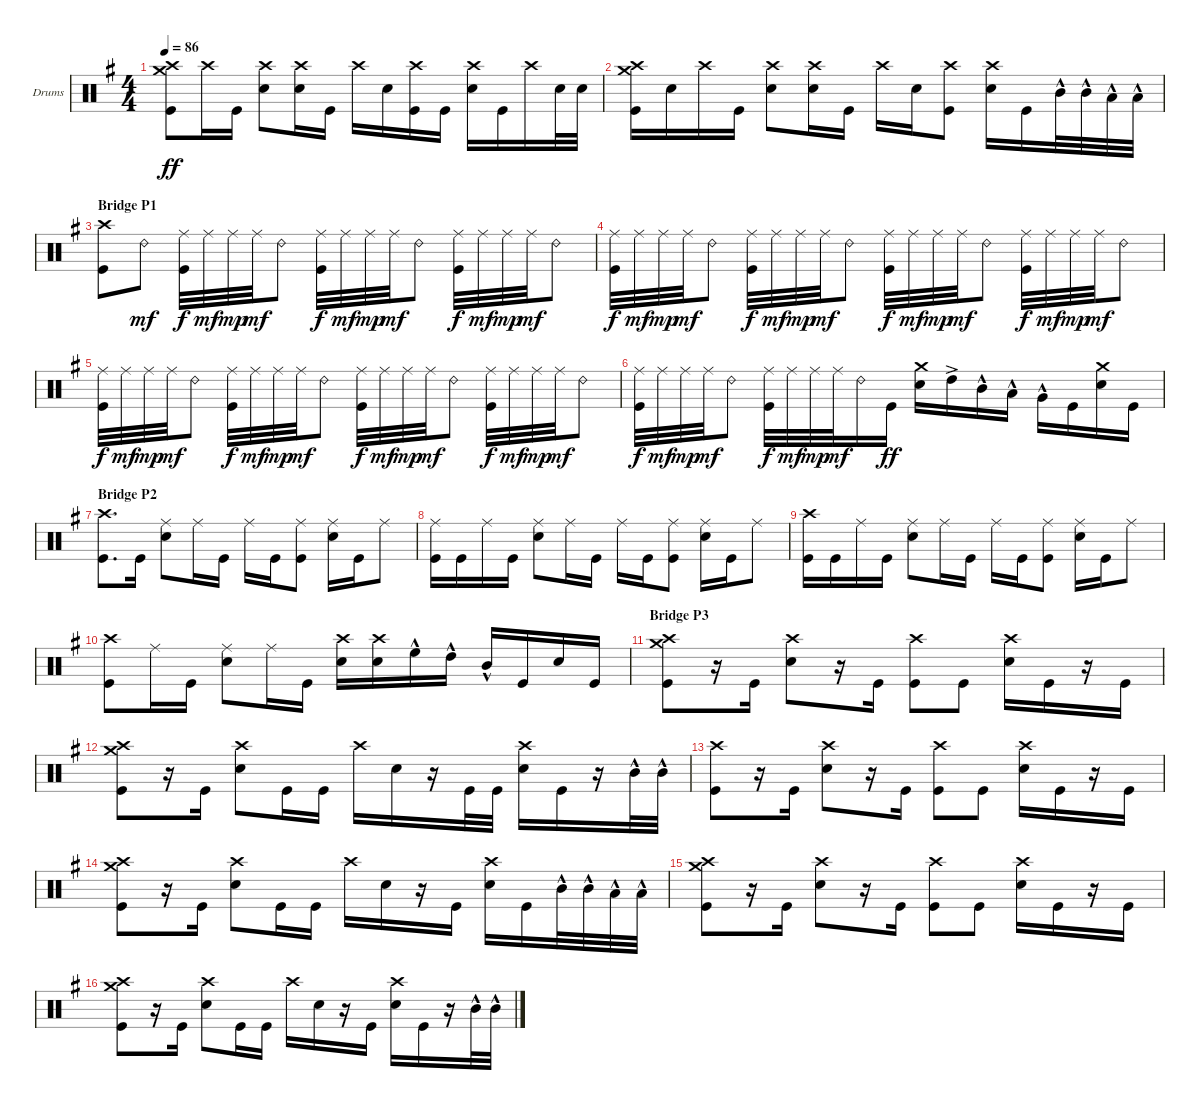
\defaultSystemsLayout 4
\bracketExtendMode groupsimilarinstruments
\firstSystemTrackNameOrientation horizontal
\otherSystemsTrackNameOrientation horizontal
\track ("Drumkit" "Drums") {instrument percussion}
\staff {score}
\articulation defaults
\ts (4 4)
\tempo 86
\clef neutral
\ks eminor
("Crash high (hit)" "Crash medium (hit)" "Kick (hit)").8{dy ff} "Crash high (hit)".16 "Kick (hit)".16 ("Crash high (hit)" "Snare (hit) 2").8 ("Snare (hit) 2" "Crash high (hit)").16 "Kick (hit)".16 "Crash high (hit)".16 "Snare (hit) 2".16 ("Kick (hit)" "Crash high (hit)").16 "Kick (hit)".16 ("Snare (hit) 2" "Crash high (hit)").16 "Kick (hit)".16 "Crash high (hit)".16 "Snare (hit) 2".32 "Snare (hit) 2".32 |
("Crash high (hit)" "Crash medium (hit)" "Kick (hit)").16 "Snare (hit) 2".16 "Crash high (hit)".16 "Kick (hit)".16 ("Crash high (hit)" "Snare (hit) 2").8 ("Snare (hit) 2" "Crash high (hit)").16 "Kick (hit)".16 "Crash high (hit)".16 "Snare (hit) 2".16 ("Kick (hit)" "Crash high (hit)").8 ("Snare (hit) 2" "Crash high (hit)").16 "Kick (hit)".16 "Mid Tom (hit)"{hac}.32 "Mid Tom (hit)"{hac}.32 "Low Tom (hit)"{hac}.32 "Low Tom (hit)"{hac}.32 |
\section ("" "Bridge P1")
("Crash high (hit)" "Kick (hit)").8 "Ride (bell) 2".8{dy mf} ("Ride (middle)" "Kick (hit)").32{dy f} "Ride (middle)".32{dy mf} "Ride (middle)".32{dy mp} "Ride (middle)".32{dy mf} "Ride (bell) 2".8 ("Ride (middle)" "Kick (hit)").32{dy f} "Ride (middle)".32{dy mf} "Ride (middle)".32{dy mp} "Ride (middle)".32{dy mf} "Ride (bell) 2".8 ("Ride (middle)" "Kick (hit)").32{dy f} "Ride (middle)".32{dy mf} "Ride (middle)".32{dy mp} "Ride (middle)".32{dy mf} "Ride (bell) 2".8 |
("Ride (middle)" "Kick (hit)").32{dy f} "Ride (middle)".32{dy mf} "Ride (middle)".32{dy mp} "Ride (middle)".32{dy mf} "Ride (bell) 2".8 ("Ride (middle)" "Kick (hit)").32{dy f} "Ride (middle)".32{dy mf} "Ride (middle)".32{dy mp} "Ride (middle)".32{dy mf} "Ride (bell) 2".8 ("Ride (middle)" "Kick (hit)").32{dy f} "Ride (middle)".32{dy mf} "Ride (middle)".32{dy mp} "Ride (middle)".32{dy mf} "Ride (bell) 2".8 ("Ride (middle)" "Kick (hit)").32{dy f} "Ride (middle)".32{dy mf} "Ride (middle)".32{dy mp} "Ride (middle)".32{dy mf} "Ride (bell) 2".8 |
("Ride (middle)" "Kick (hit)").32{dy f} "Ride (middle)".32{dy mf} "Ride (middle)".32{dy mp} "Ride (middle)".32{dy mf} "Ride (bell) 2".8 ("Ride (middle)" "Kick (hit)").32{dy f} "Ride (middle)".32{dy mf} "Ride (middle)".32{dy mp} "Ride (middle)".32{dy mf} "Ride (bell) 2".8 ("Ride (middle)" "Kick (hit)").32{dy f} "Ride (middle)".32{dy mf} "Ride (middle)".32{dy mp} "Ride (middle)".32{dy mf} "Ride (bell) 2".8 ("Ride (middle)" "Kick (hit)").32{dy f} "Ride (middle)".32{dy mf} "Ride (middle)".32{dy mp} "Ride (middle)".32{dy mf} "Ride (bell) 2".8 |
("Ride (middle)" "Kick (hit)").32{dy f} "Ride (middle)".32{dy mf} "Ride (middle)".32{dy mp} "Ride (middle)".32{dy mf} "Ride (bell) 2".8 ("Ride (middle)" "Kick (hit)").32{dy f} "Ride (middle)".32{dy mf} "Ride (middle)".32{dy mp} "Ride (middle)".32{dy mf} "Ride (bell) 2".16 "Kick (hit)".16{dy ff} ("Snare (hit) 2" "Crash medium (hit)").16 "High Tom (hit)"{ac}.16 "Mid Tom (hit)"{hac}.16 "Low Tom (hit)"{hac}.16 "Very Low Tom (hit)"{hac}.16 "Kick (hit)".16 ("Snare (hit) 2" "Crash medium (hit)").16 "Kick (hit)".16 |
\section ("" "Bridge P2")
("Crash high (hit)" "Kick (hit)").8{d} "Kick (hit)".16 ("Snare (hit) 2" "Ride (middle)").8 "Ride (middle)".16 "Kick (hit)".16 "Ride (middle)".16 "Kick (hit)".16 ("Kick (hit)" "Ride (middle)").8 ("Ride (middle)" "Snare (hit) 2").16 "Kick (hit)".16 "Ride (middle)".8 |
("Kick (hit)" "Ride (middle)").16 "Kick (hit)".16 "Ride (middle)".16 "Kick (hit)".16 ("Snare (hit) 2" "Ride (middle)").8 "Ride (middle)".16 "Kick (hit)".16 "Ride (middle)".16 "Kick (hit)".16 ("Kick (hit)" "Ride (middle)").8 ("Ride (middle)" "Snare (hit) 2").16 "Kick (hit)".16 "Ride (middle)".8 |
("Kick (hit)" "Crash high (hit)").16 "Kick (hit)".16 "Ride (middle)".16 "Kick (hit)".16 ("Snare (hit) 2" "Ride (middle)").8 "Ride (middle)".16 "Kick (hit)".16 "Ride (middle)".16 "Kick (hit)".16 ("Kick (hit)" "Ride (middle)").8 ("Ride (middle)" "Snare (hit) 2").16 "Kick (hit)".16 "Ride (middle)".8 |
("Crash high (hit)" "Kick (hit)").8 "Ride (middle)".16 "Kick (hit)".16 ("Snare (hit) 2" "Ride (middle)").8 "Ride (middle)".16 "Kick (hit)".16 ("Snare (hit) 2" "Crash high (hit)").16 ("Snare (hit) 2" "Crash high (hit)").16 "High Floor Tom (hit)"{hac}.16 "High Tom (hit)"{hac}.16 "Mid Tom (hit)"{hac}.16 "Kick (hit)".16 "Snare (hit) 2".16 "Kick (hit)".16 |
\section ("" "Bridge P3")
("Crash high (hit)" "Crash medium (hit)" "Kick (hit)").8 r.16 "Kick (hit)".16 ("Snare (hit) 2" "Crash high (hit)").8 r.16 "Kick (hit)".16 ("Kick (hit)" "Crash high (hit)").8 "Kick (hit)".8 ("Snare (hit) 2" "Crash high (hit)").16 "Kick (hit)".16 r.16 "Kick (hit)".16 |
("Crash high (hit)" "Kick (hit)" "Crash medium (hit)").8 r.16 "Kick (hit)".16 ("Snare (hit) 2" "Crash high (hit)").8 "Kick (hit)".16 "Kick (hit)".16 "Crash high (hit)".16 "Snare (hit) 2".16 r.16 "Kick (hit)".32 "Kick (hit)".32 ("Snare (hit) 2" "Crash high (hit)").16 "Kick (hit)".16 r.16 "Mid Tom (hit)"{hac}.32 "Mid Tom (hit)"{hac}.32 |
("Crash high (hit)" "Kick (hit)").8 r.16 "Kick (hit)".16 ("Snare (hit) 2" "Crash high (hit)").8 r.16 "Kick (hit)".16 ("Kick (hit)" "Crash high (hit)").8 "Kick (hit)".8 ("Snare (hit) 2" "Crash high (hit)").16 "Kick (hit)".16 r.16 "Kick (hit)".16 |
("Crash high (hit)" "Kick (hit)" "Crash medium (hit)").8 r.16 "Kick (hit)".16 ("Snare (hit) 2" "Crash high (hit)").8 "Kick (hit)".16 "Kick (hit)".16 "Crash high (hit)".16 "Snare (hit) 2".16 r.16 "Kick (hit)".16 ("Snare (hit) 2" "Crash high (hit)").16 "Kick (hit)".16 "Mid Tom (hit)"{hac}.32 "Mid Tom (hit)"{hac}.32 "Low Tom (hit)"{hac}.32 "Low Tom (hit)"{hac}.32 |
("Crash high (hit)" "Crash medium (hit)" "Kick (hit)").8 r.16 "Kick (hit)".16 ("Snare (hit) 2" "Crash high (hit)").8 r.16 "Kick (hit)".16 ("Kick (hit)" "Crash high (hit)").8 "Kick (hit)".8 ("Snare (hit) 2" "Crash high (hit)").16 "Kick (hit)".16 r.16 "Kick (hit)".16 |
("Crash high (hit)" "Kick (hit)" "Crash medium (hit)").8 r.16 "Kick (hit)".16 ("Snare (hit) 2" "Crash high (hit)").8 "Kick (hit)".16 "Kick (hit)".16 "Crash high (hit)".16 "Snare (hit) 2".16 r.16 "Kick (hit)".16 ("Snare (hit) 2" "Crash high (hit)").16 "Kick (hit)".16 r.16 "Mid Tom (hit)"{hac}.32 "Mid Tom (hit)"{hac}.32
